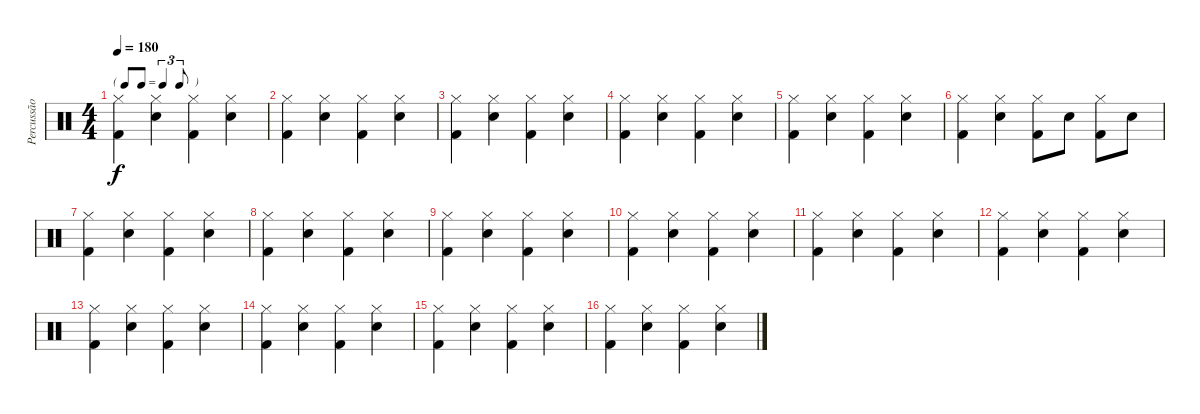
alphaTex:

\track ("Percussão" "Percussão") {instrument percussion}
\staff {score}
\articulation defaults
\ts (4 4)
\tf triplet8th
\tempo 180
\clef neutral
\ks c
("Hi-Hat (closed)" "Kick (hit) 2").4{dy f} ("Hi-Hat (closed)" "Snare (hit) 2").4 ("Hi-Hat (closed)" "Kick (hit) 2").4 ("Hi-Hat (closed)" "Snare (hit) 2").4 |
("Hi-Hat (closed)" "Kick (hit) 2").4 ("Hi-Hat (closed)" "Snare (hit) 2").4 ("Hi-Hat (closed)" "Kick (hit) 2").4 ("Hi-Hat (closed)" "Snare (hit) 2").4 |
("Hi-Hat (closed)" "Kick (hit) 2").4 ("Hi-Hat (closed)" "Snare (hit) 2").4 ("Hi-Hat (closed)" "Kick (hit) 2").4 ("Hi-Hat (closed)" "Snare (hit) 2").4 |
("Hi-Hat (closed)" "Kick (hit) 2").4 ("Hi-Hat (closed)" "Snare (hit) 2").4 ("Hi-Hat (closed)" "Kick (hit) 2").4 ("Hi-Hat (closed)" "Snare (hit) 2").4 |
("Hi-Hat (closed)" "Kick (hit) 2").4 ("Hi-Hat (closed)" "Snare (hit) 2").4 ("Hi-Hat (closed)" "Kick (hit) 2").4 ("Hi-Hat (closed)" "Snare (hit) 2").4 |
("Hi-Hat (closed)" "Kick (hit) 2").4 ("Hi-Hat (closed)" "Snare (hit) 2").4 ("Hi-Hat (closed)" "Kick (hit) 2").8 "Snare (hit) 2".8 ("Hi-Hat (closed)" "Kick (hit) 2").8 "Snare (hit) 2".8 |
("Hi-Hat (closed)" "Kick (hit) 2").4 ("Hi-Hat (closed)" "Snare (hit) 2").4 ("Hi-Hat (closed)" "Kick (hit) 2").4 ("Hi-Hat (closed)" "Snare (hit) 2").4 |
("Hi-Hat (closed)" "Kick (hit) 2").4 ("Hi-Hat (closed)" "Snare (hit) 2").4 ("Hi-Hat (closed)" "Kick (hit) 2").4 ("Hi-Hat (closed)" "Snare (hit) 2").4 |
("Hi-Hat (closed)" "Kick (hit) 2").4 ("Hi-Hat (closed)" "Snare (hit) 2").4 ("Hi-Hat (closed)" "Kick (hit) 2").4 ("Hi-Hat (closed)" "Snare (hit) 2").4 |
("Hi-Hat (closed)" "Kick (hit) 2").4 ("Hi-Hat (closed)" "Snare (hit) 2").4 ("Hi-Hat (closed)" "Kick (hit) 2").4 ("Hi-Hat (closed)" "Snare (hit) 2").4 |
("Hi-Hat (closed)" "Kick (hit) 2").4 ("Hi-Hat (closed)" "Snare (hit) 2").4 ("Hi-Hat (closed)" "Kick (hit) 2").4 ("Hi-Hat (closed)" "Snare (hit) 2").4 |
("Hi-Hat (closed)" "Kick (hit) 2").4 ("Hi-Hat (closed)" "Snare (hit) 2").4 ("Hi-Hat (closed)" "Kick (hit) 2").4 ("Hi-Hat (closed)" "Snare (hit) 2").4 |
("Hi-Hat (closed)" "Kick (hit) 2").4 ("Hi-Hat (closed)" "Snare (hit) 2").4 ("Hi-Hat (closed)" "Kick (hit) 2").4 ("Hi-Hat (closed)" "Snare (hit) 2").4 |
("Hi-Hat (closed)" "Kick (hit) 2").4 ("Hi-Hat (closed)" "Snare (hit) 2").4 ("Hi-Hat (closed)" "Kick (hit) 2").4 ("Hi-Hat (closed)" "Snare (hit) 2").4 |
("Hi-Hat (closed)" "Kick (hit) 2").4 ("Hi-Hat (closed)" "Snare (hit) 2").4 ("Hi-Hat (closed)" "Kick (hit) 2").4 ("Hi-Hat (closed)" "Snare (hit) 2").4 |
("Hi-Hat (closed)" "Kick (hit) 2").4 ("Hi-Hat (closed)" "Snare (hit) 2").4 ("Hi-Hat (closed)" "Kick (hit) 2").4 ("Hi-Hat (closed)" "Snare (hit) 2").4
